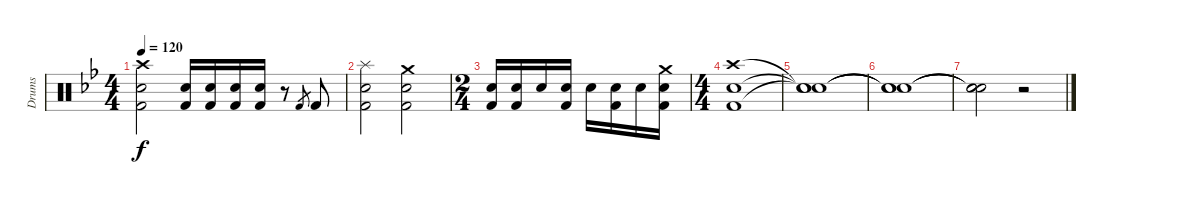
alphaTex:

\track ("Drums" "Drums") {instrument percussion}
\staff {score}
\articulation defaults
\ts (4 4)
\tempo 120
\clef neutral
\ks bb
("Crash high (hit)" "Electric Snare (hit)" "Kick (hit) 2").2{dy f} ("Electric Snare (hit)" "Kick (hit) 2").16 ("Electric Snare (hit)" "Kick (hit) 2").16 ("Electric Snare (hit)" "Kick (hit) 2").16 ("Electric Snare (hit)" "Kick (hit) 2").16 r.8 "Kick (hit) 2".8{gr} "Kick (hit) 2".8 |
("Splash (hit)" "Electric Snare (hit)" "Kick (hit) 2").2 ("Crash medium (hit)" "Electric Snare (hit)" "Kick (hit) 2").2 |
\ts (2 4)
("Electric Snare (hit)" "Kick (hit) 2").16 ("Electric Snare (hit)" "Kick (hit) 2").16 "Electric Snare (hit)".16 ("Electric Snare (hit)" "Kick (hit) 2").16 "Electric Snare (hit)".16 ("Electric Snare (hit)" "Kick (hit) 2").16 "Electric Snare (hit)".16 ("Crash medium (hit)" "Electric Snare (hit)" "Kick (hit) 2").16 |
\ts (4 4)
("Crash high (hit)" "Electric Snare (hit)" "Kick (hit) 2").1 |
("Snare (hit)"{t} "Snare (hit)"{t} "Snare (hit)"{t}).1 |
("Snare (hit)"{t} "Snare (hit)"{t} "Snare (hit)"{t}).1 |
("Snare (hit)"{t} "Snare (hit)"{t} "Snare (hit)"{t}).2 r.2
